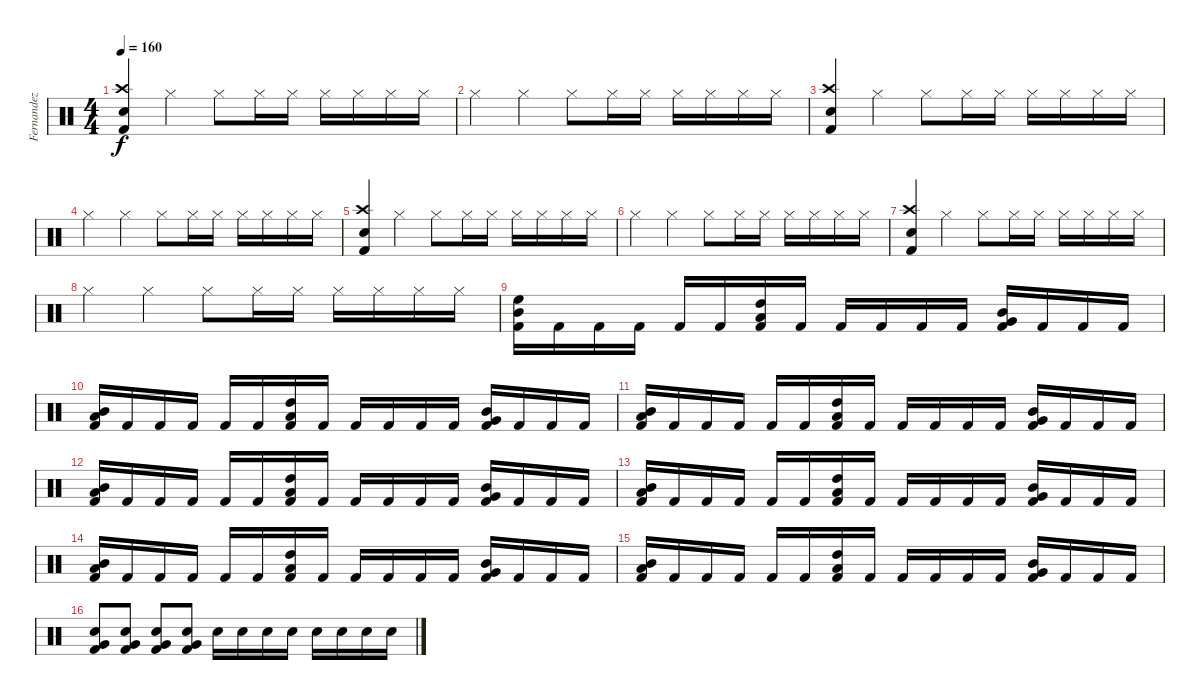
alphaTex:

\track ("Fernandez" "Fernandez") {instrument percussion}
\staff {score}
\articulation defaults
\ts (4 4)
\tempo 160
\clef neutral
\ks c
("Snare (hit) 2" "Crash high (hit)" "Kick (hit) 2").4{dy f} "Hi-Hat (closed)".4 "Hi-Hat (closed)".8 "Hi-Hat (closed)".16 "Hi-Hat (closed)".16 "Hi-Hat (closed)".16 "Hi-Hat (closed)".16 "Hi-Hat (closed)".16 "Hi-Hat (closed)".16 |
"Hi-Hat (closed)".4 "Hi-Hat (closed)".4 "Hi-Hat (closed)".8 "Hi-Hat (closed)".16 "Hi-Hat (closed)".16 "Hi-Hat (closed)".16 "Hi-Hat (closed)".16 "Hi-Hat (closed)".16 "Hi-Hat (closed)".16 |
("Snare (hit) 2" "Kick (hit) 2" "Crash high (hit)").4 "Hi-Hat (closed)".4 "Hi-Hat (closed)".8 "Hi-Hat (closed)".16 "Hi-Hat (closed)".16 "Hi-Hat (closed)".16 "Hi-Hat (closed)".16 "Hi-Hat (closed)".16 "Hi-Hat (closed)".16 |
"Hi-Hat (closed)".4 "Hi-Hat (closed)".4 "Hi-Hat (closed)".8 "Hi-Hat (closed)".16 "Hi-Hat (closed)".16 "Hi-Hat (closed)".16 "Hi-Hat (closed)".16 "Hi-Hat (closed)".16 "Hi-Hat (closed)".16 |
("Crash high (hit)" "Kick (hit) 2" "Snare (hit) 2").4 "Hi-Hat (closed)".4 "Hi-Hat (closed)".8 "Hi-Hat (closed)".16 "Hi-Hat (closed)".16 "Hi-Hat (closed)".16 "Hi-Hat (closed)".16 "Hi-Hat (closed)".16 "Hi-Hat (closed)".16 |
"Hi-Hat (closed)".4 "Hi-Hat (closed)".4 "Hi-Hat (closed)".8 "Hi-Hat (closed)".16 "Hi-Hat (closed)".16 "Hi-Hat (closed)".16 "Hi-Hat (closed)".16 "Hi-Hat (closed)".16 "Hi-Hat (closed)".16 |
("Snare (hit) 2" "Kick (hit) 2" "Crash high (hit)").4 "Hi-Hat (closed)".4 "Hi-Hat (closed)".8 "Hi-Hat (closed)".16 "Hi-Hat (closed)".16 "Hi-Hat (closed)".16 "Hi-Hat (closed)".16 "Hi-Hat (closed)".16 "Hi-Hat (closed)".16 |
"Hi-Hat (closed)".4 "Hi-Hat (closed)".4 "Hi-Hat (closed)".8 "Hi-Hat (closed)".16 "Hi-Hat (closed)".16 "Hi-Hat (closed)".16 "Hi-Hat (closed)".16 "Hi-Hat (closed)".16 "Hi-Hat (closed)".16 |
("Mid Tom (hit)" "High Floor Tom (hit)" "Kick (hit) 2").16 "Kick (hit) 2".16 "Kick (hit) 2".16 "Kick (hit) 2".16 "Kick (hit) 2".16 "Kick (hit) 2".16 ("Low Tom (hit)" "High Tom (hit)" "Kick (hit) 2").16 "Kick (hit) 2".16 "Kick (hit) 2".16 "Kick (hit) 2".16 "Kick (hit) 2".16 "Kick (hit) 2".16 ("Very Low Tom (hit)" "Mid Tom (hit)" "Kick (hit) 2").16 "Kick (hit) 2".16 "Kick (hit) 2".16 "Kick (hit) 2".16 |
("Mid Tom (hit)" "Low Tom (hit)" "Kick (hit) 2").16 "Kick (hit) 2".16 "Kick (hit) 2".16 "Kick (hit) 2".16 "Kick (hit) 2".16 "Kick (hit) 2".16 ("Low Tom (hit)" "High Tom (hit)" "Kick (hit) 2").16 "Kick (hit) 2".16 "Kick (hit) 2".16 "Kick (hit) 2".16 "Kick (hit) 2".16 "Kick (hit) 2".16 ("Very Low Tom (hit)" "Mid Tom (hit)" "Kick (hit) 2").16 "Kick (hit) 2".16 "Kick (hit) 2".16 "Kick (hit) 2".16 |
("Mid Tom (hit)" "Low Tom (hit)" "Kick (hit) 2").16 "Kick (hit) 2".16 "Kick (hit) 2".16 "Kick (hit) 2".16 "Kick (hit) 2".16 "Kick (hit) 2".16 ("Low Tom (hit)" "High Tom (hit)" "Kick (hit) 2").16 "Kick (hit) 2".16 "Kick (hit) 2".16 "Kick (hit) 2".16 "Kick (hit) 2".16 "Kick (hit) 2".16 ("Very Low Tom (hit)" "Mid Tom (hit)" "Kick (hit) 2").16 "Kick (hit) 2".16 "Kick (hit) 2".16 "Kick (hit) 2".16 |
("Mid Tom (hit)" "Low Tom (hit)" "Kick (hit) 2").16 "Kick (hit) 2".16 "Kick (hit) 2".16 "Kick (hit) 2".16 "Kick (hit) 2".16 "Kick (hit) 2".16 ("Low Tom (hit)" "High Tom (hit)" "Kick (hit) 2").16 "Kick (hit) 2".16 "Kick (hit) 2".16 "Kick (hit) 2".16 "Kick (hit) 2".16 "Kick (hit) 2".16 ("Very Low Tom (hit)" "Mid Tom (hit)" "Kick (hit) 2").16 "Kick (hit) 2".16 "Kick (hit) 2".16 "Kick (hit) 2".16 |
("Mid Tom (hit)" "Low Tom (hit)" "Kick (hit) 2").16 "Kick (hit) 2".16 "Kick (hit) 2".16 "Kick (hit) 2".16 "Kick (hit) 2".16 "Kick (hit) 2".16 ("Low Tom (hit)" "High Tom (hit)" "Kick (hit) 2").16 "Kick (hit) 2".16 "Kick (hit) 2".16 "Kick (hit) 2".16 "Kick (hit) 2".16 "Kick (hit) 2".16 ("Mid Tom (hit)" "Very Low Tom (hit)" "Kick (hit) 2").16 "Kick (hit) 2".16 "Kick (hit) 2".16 "Kick (hit) 2".16 |
("Mid Tom (hit)" "Low Tom (hit)" "Kick (hit) 2").16 "Kick (hit) 2".16 "Kick (hit) 2".16 "Kick (hit) 2".16 "Kick (hit) 2".16 "Kick (hit) 2".16 ("Low Tom (hit)" "High Tom (hit)" "Kick (hit) 2").16 "Kick (hit) 2".16 "Kick (hit) 2".16 "Kick (hit) 2".16 "Kick (hit) 2".16 "Kick (hit) 2".16 ("Mid Tom (hit)" "Very Low Tom (hit)" "Kick (hit) 2").16 "Kick (hit) 2".16 "Kick (hit) 2".16 "Kick (hit) 2".16 |
("Mid Tom (hit)" "Low Tom (hit)" "Kick (hit) 2").16 "Kick (hit) 2".16 "Kick (hit) 2".16 "Kick (hit) 2".16 "Kick (hit) 2".16 "Kick (hit) 2".16 ("Low Tom (hit)" "High Tom (hit)" "Kick (hit) 2").16 "Kick (hit) 2".16 "Kick (hit) 2".16 "Kick (hit) 2".16 "Kick (hit) 2".16 "Kick (hit) 2".16 ("Very Low Tom (hit)" "Mid Tom (hit)" "Kick (hit) 2").16 "Kick (hit) 2".16 "Kick (hit) 2".16 "Kick (hit) 2".16 |
("Snare (hit) 2" "Very Low Tom (hit)" "Kick (hit) 2").8 ("Snare (hit) 2" "Very Low Tom (hit)" "Kick (hit) 2").8 ("Snare (hit) 2" "Very Low Tom (hit)" "Kick (hit) 2").8 ("Snare (hit) 2" "Very Low Tom (hit)" "Kick (hit) 2").8 "Snare (hit) 2".16 "Snare (hit) 2".16 "Snare (hit) 2".16 "Snare (hit) 2".16 "Snare (hit) 2".16 "Snare (hit) 2".16 "Snare (hit) 2".16 "Snare (hit) 2".16
